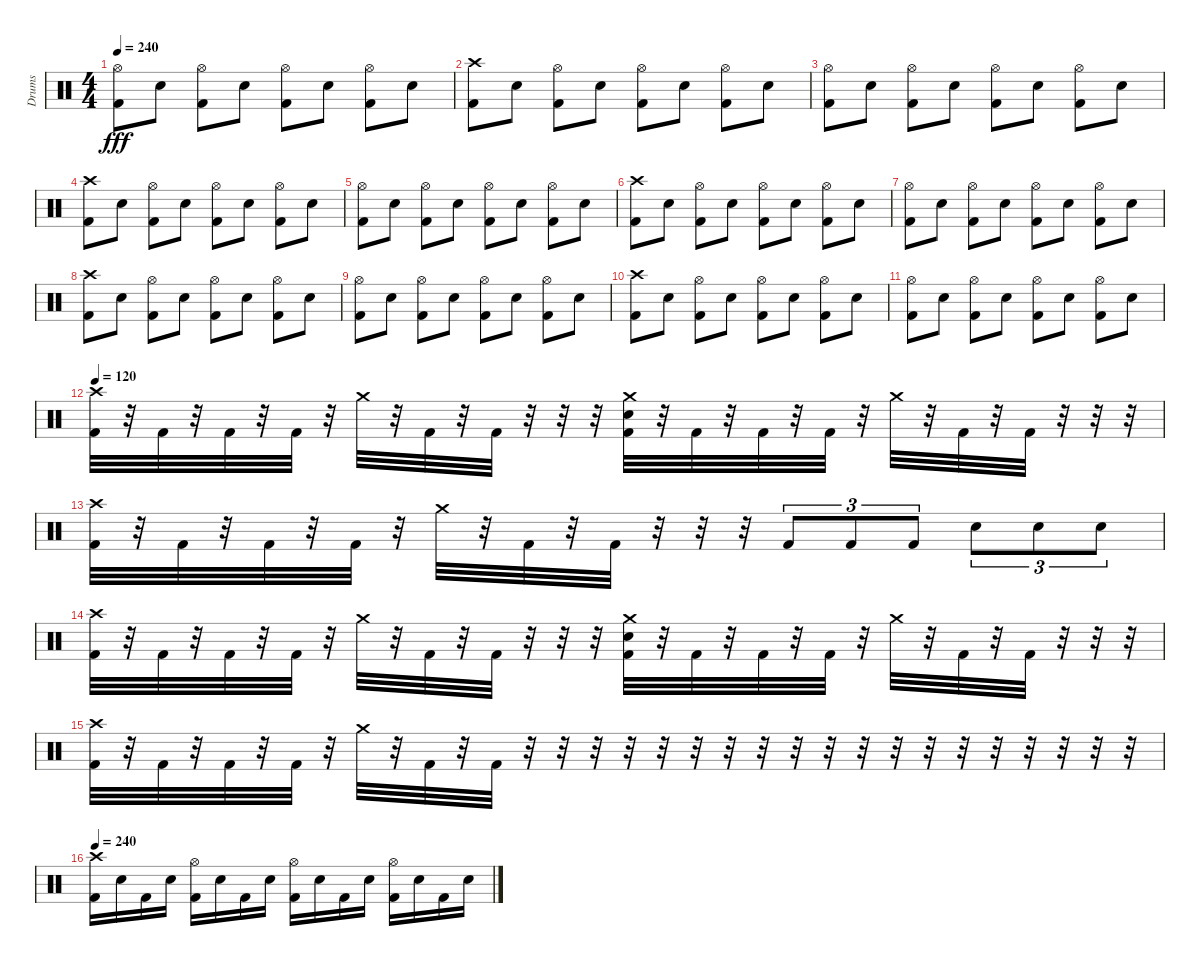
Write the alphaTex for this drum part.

\track ("Drums" "Drums") {instrument percussion}
\staff {score}
\articulation defaults
\ts (4 4)
\tempo 240
\clef neutral
\ks c
("Hi-Hat (open)" "Kick (hit) 2").8{dy fff} "Electric Snare (hit)".8 ("Hi-Hat (open)" "Kick (hit) 2").8 "Electric Snare (hit)".8 ("Hi-Hat (open)" "Kick (hit) 2").8 "Electric Snare (hit)".8 ("Hi-Hat (open)" "Kick (hit) 2").8 "Electric Snare (hit)".8 |
("Crash high (hit)" "Kick (hit) 2").8 "Electric Snare (hit)".8 ("Hi-Hat (open)" "Kick (hit) 2").8 "Electric Snare (hit)".8 ("Hi-Hat (open)" "Kick (hit) 2").8 "Electric Snare (hit)".8 ("Hi-Hat (open)" "Kick (hit) 2").8 "Electric Snare (hit)".8 |
("Hi-Hat (open)" "Kick (hit) 2").8 "Electric Snare (hit)".8 ("Hi-Hat (open)" "Kick (hit) 2").8 "Electric Snare (hit)".8 ("Hi-Hat (open)" "Kick (hit) 2").8 "Electric Snare (hit)".8 ("Hi-Hat (open)" "Kick (hit) 2").8 "Electric Snare (hit)".8 |
("Crash high (hit)" "Kick (hit) 2").8 "Electric Snare (hit)".8 ("Hi-Hat (open)" "Kick (hit) 2").8 "Electric Snare (hit)".8 ("Hi-Hat (open)" "Kick (hit) 2").8 "Electric Snare (hit)".8 ("Hi-Hat (open)" "Kick (hit) 2").8 "Electric Snare (hit)".8 |
("Hi-Hat (open)" "Kick (hit) 2").8 "Electric Snare (hit)".8 ("Hi-Hat (open)" "Kick (hit) 2").8 "Electric Snare (hit)".8 ("Hi-Hat (open)" "Kick (hit) 2").8 "Electric Snare (hit)".8 ("Hi-Hat (open)" "Kick (hit) 2").8 "Electric Snare (hit)".8 |
("Crash high (hit)" "Kick (hit) 2").8 "Electric Snare (hit)".8 ("Hi-Hat (open)" "Kick (hit) 2").8 "Electric Snare (hit)".8 ("Hi-Hat (open)" "Kick (hit) 2").8 "Electric Snare (hit)".8 ("Hi-Hat (open)" "Kick (hit) 2").8 "Electric Snare (hit)".8 |
("Hi-Hat (open)" "Kick (hit) 2").8 "Electric Snare (hit)".8 ("Hi-Hat (open)" "Kick (hit) 2").8 "Electric Snare (hit)".8 ("Hi-Hat (open)" "Kick (hit) 2").8 "Electric Snare (hit)".8 ("Hi-Hat (open)" "Kick (hit) 2").8 "Electric Snare (hit)".8 |
("Crash high (hit)" "Kick (hit) 2").8 "Electric Snare (hit)".8 ("Hi-Hat (open)" "Kick (hit) 2").8 "Electric Snare (hit)".8 ("Hi-Hat (open)" "Kick (hit) 2").8 "Electric Snare (hit)".8 ("Hi-Hat (open)" "Kick (hit) 2").8 "Electric Snare (hit)".8 |
("Hi-Hat (open)" "Kick (hit) 2").8 "Electric Snare (hit)".8 ("Hi-Hat (open)" "Kick (hit) 2").8 "Electric Snare (hit)".8 ("Hi-Hat (open)" "Kick (hit) 2").8 "Electric Snare (hit)".8 ("Hi-Hat (open)" "Kick (hit) 2").8 "Electric Snare (hit)".8 |
("Crash high (hit)" "Kick (hit) 2").8 "Electric Snare (hit)".8 ("Hi-Hat (open)" "Kick (hit) 2").8 "Electric Snare (hit)".8 ("Hi-Hat (open)" "Kick (hit) 2").8 "Electric Snare (hit)".8 ("Hi-Hat (open)" "Kick (hit) 2").8 "Electric Snare (hit)".8 |
("Hi-Hat (open)" "Kick (hit) 2").8 "Electric Snare (hit)".8 ("Hi-Hat (open)" "Kick (hit) 2").8 "Electric Snare (hit)".8 ("Hi-Hat (open)" "Kick (hit) 2").8 "Electric Snare (hit)".8 ("Hi-Hat (open)" "Kick (hit) 2").8 "Electric Snare (hit)".8 |
\tempo 120
("Crash high (hit)" "Kick (hit) 2").32 r.32 "Kick (hit) 2".32 r.32 "Kick (hit) 2".32 r.32 "Kick (hit) 2".32 r.32 "Crash medium (hit)".32 r.32 "Kick (hit) 2".32 r.32 "Kick (hit) 2".32 r.32 r.32 r.32 ("Crash medium (hit)" "Electric Snare (hit)" "Kick (hit) 2").32 r.32 "Kick (hit) 2".32 r.32 "Kick (hit) 2".32 r.32 "Kick (hit) 2".32 r.32 "Crash medium (hit)".32 r.32 "Kick (hit) 2".32 r.32 "Kick (hit) 2".32 r.32 r.32 r.32 |
("Crash high (hit)" "Kick (hit) 2").32 r.32 "Kick (hit) 2".32 r.32 "Kick (hit) 2".32 r.32 "Kick (hit) 2".32 r.32 "Crash medium (hit)".32 r.32 "Kick (hit) 2".32 r.32 "Kick (hit) 2".32 r.32 r.32 r.32 "Kick (hit) 2".8{tu (3 2)} "Kick (hit) 2".8{tu (3 2)} "Kick (hit) 2".8{tu (3 2)} "Electric Snare (hit)".8{tu (3 2)} "Electric Snare (hit)".8{tu (3 2)} "Electric Snare (hit)".8{tu (3 2)} |
("Crash high (hit)" "Kick (hit) 2").32 r.32 "Kick (hit) 2".32 r.32 "Kick (hit) 2".32 r.32 "Kick (hit) 2".32 r.32 "Crash medium (hit)".32 r.32 "Kick (hit) 2".32 r.32 "Kick (hit) 2".32 r.32 r.32 r.32 ("Crash medium (hit)" "Electric Snare (hit)" "Kick (hit) 2").32 r.32 "Kick (hit) 2".32 r.32 "Kick (hit) 2".32 r.32 "Kick (hit) 2".32 r.32 "Crash medium (hit)".32 r.32 "Kick (hit) 2".32 r.32 "Kick (hit) 2".32 r.32 r.32 r.32 |
("Crash high (hit)" "Kick (hit) 2").32 r.32 "Kick (hit) 2".32 r.32 "Kick (hit) 2".32 r.32 "Kick (hit) 2".32 r.32 "Crash medium (hit)".32 r.32 "Kick (hit) 2".32 r.32 "Kick (hit) 2".32 r.32 r.32 r.32 r.32 r.32 r.32 r.32 r.32 r.32 r.32 r.32 r.32 r.32 r.32 r.32 r.32 r.32 r.32 r.32 |
\tempo 240
("Crash high (hit)" "Kick (hit) 2").16 "Electric Snare (hit)".16 "Kick (hit) 2".16 "Electric Snare (hit)".16 ("Hi-Hat (open)" "Kick (hit) 2").16 "Electric Snare (hit)".16 "Kick (hit) 2".16 "Electric Snare (hit)".16 ("Hi-Hat (open)" "Kick (hit) 2").16 "Electric Snare (hit)".16 "Kick (hit) 2".16 "Electric Snare (hit)".16 ("Hi-Hat (open)" "Kick (hit) 2").16 "Electric Snare (hit)".16 "Kick (hit) 2".16 "Electric Snare (hit)".16
